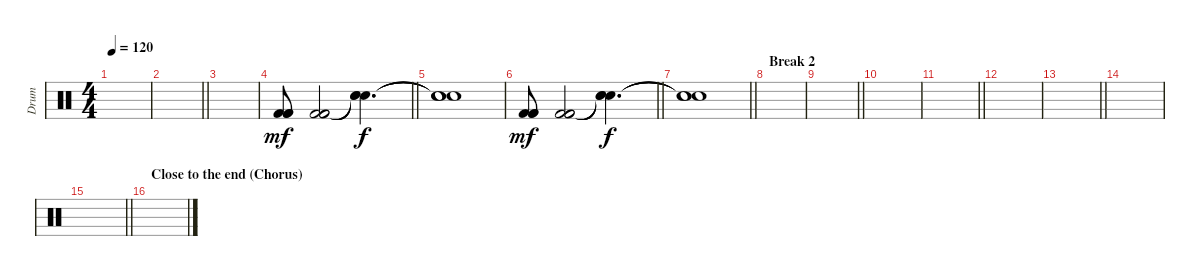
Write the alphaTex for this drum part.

\track ("Drum " "Drum ") {instrument percussion}
\staff {score}
\articulation defaults
\ts (4 4)
\tempo 120
\clef neutral
\ks c
|
\barLineRight lightlight
|
|
\barLineRight lightlight
("Kick (hit) 2" "Kick (hit) 2" "Kick (hit) 2").8{dy mf volume 16} ("Kick (hit) 2" "Kick (hit) 2" "Kick (hit) 2").2 ("Snare (hit)"{t} "Snare (hit)"{t} "Snare (hit)"{t}).4{d dy f} |
("Snare (hit)"{t} "Snare (hit)"{t} "Snare (hit)"{t}).1 |
\barLineRight lightlight
("Kick (hit) 2" "Kick (hit) 2" "Kick (hit) 2").8{dy mf volume 16} ("Kick (hit) 2" "Kick (hit) 2" "Kick (hit) 2").2 ("Snare (hit)"{t} "Snare (hit)"{t} "Snare (hit)"{t}).4{d dy f} |
\barLineRight lightlight
("Snare (hit)"{t} "Snare (hit)"{t} "Snare (hit)"{t}).1 |
\section ("" "Break 2")
|
\barLineRight lightlight
|
|
\barLineRight lightlight
|
|
\barLineRight lightlight
|
|
\barLineRight lightlight
|
\section ("" "Close to the end (Chorus)")
